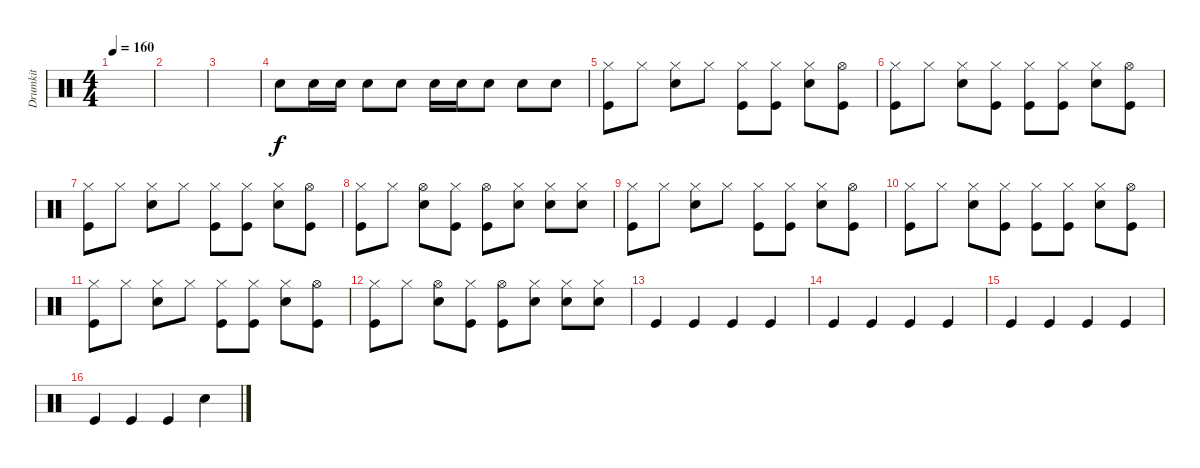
\track ("Drumkit" "Drumkit") {instrument percussion}
\staff {score}
\articulation defaults
\ts (4 4)
\tempo 160
\clef neutral
\ks c
|
|
|
"Snare (hit) 2".8 "Snare (hit) 2".16 "Snare (hit) 2".16 "Snare (hit) 2".8 "Snare (hit) 2".8 "Snare (hit) 2".16 "Snare (hit) 2".16 "Snare (hit) 2".8 "Snare (hit) 2".8 "Snare (hit) 2".8 |
("Kick (hit)" "Hi-Hat (closed)").8 "Hi-Hat (closed)".8 ("Hi-Hat (closed)" "Snare (hit) 2").8 "Hi-Hat (closed)".8 ("Hi-Hat (closed)" "Kick (hit)").8 ("Hi-Hat (closed)" "Kick (hit)").8 ("Hi-Hat (closed)" "Snare (hit) 2").8 ("Hi-Hat (open)" "Kick (hit)").8 |
("Hi-Hat (closed)" "Kick (hit)").8 "Hi-Hat (closed)".8 ("Hi-Hat (closed)" "Snare (hit) 2").8 ("Hi-Hat (closed)" "Kick (hit)").8 ("Hi-Hat (closed)" "Kick (hit)").8 ("Hi-Hat (closed)" "Kick (hit)").8 ("Hi-Hat (closed)" "Snare (hit) 2").8 ("Hi-Hat (open)" "Kick (hit)").8 |
("Hi-Hat (closed)" "Kick (hit)").8 "Hi-Hat (closed)".8 ("Hi-Hat (closed)" "Snare (hit) 2").8 "Hi-Hat (closed)".8 ("Hi-Hat (closed)" "Kick (hit)").8 ("Hi-Hat (closed)" "Kick (hit)").8 ("Hi-Hat (closed)" "Snare (hit) 2").8 ("Hi-Hat (open)" "Kick (hit)").8 |
("Hi-Hat (closed)" "Kick (hit)").8 "Hi-Hat (closed)".8 ("Hi-Hat (open)" "Snare (hit) 2").8 ("Hi-Hat (closed)" "Kick (hit)").8 ("Hi-Hat (open)" "Kick (hit)").8 ("Hi-Hat (closed)" "Snare (hit) 2").8 ("Hi-Hat (closed)" "Snare (hit) 2").8 ("Hi-Hat (closed)" "Snare (hit) 2").8 |
("Hi-Hat (closed)" "Kick (hit)").8 "Hi-Hat (closed)".8 ("Hi-Hat (closed)" "Snare (hit) 2").8 "Hi-Hat (closed)".8 ("Hi-Hat (closed)" "Kick (hit)").8 ("Hi-Hat (closed)" "Kick (hit)").8 ("Hi-Hat (closed)" "Snare (hit) 2").8 ("Hi-Hat (open)" "Kick (hit)").8 |
("Hi-Hat (closed)" "Kick (hit)").8 "Hi-Hat (closed)".8 ("Hi-Hat (closed)" "Snare (hit) 2").8 ("Hi-Hat (closed)" "Kick (hit)").8 ("Hi-Hat (closed)" "Kick (hit)").8 ("Hi-Hat (closed)" "Kick (hit)").8 ("Hi-Hat (closed)" "Snare (hit) 2").8 ("Hi-Hat (open)" "Kick (hit)").8 |
("Hi-Hat (closed)" "Kick (hit)").8 "Hi-Hat (closed)".8 ("Hi-Hat (closed)" "Snare (hit) 2").8 "Hi-Hat (closed)".8 ("Hi-Hat (closed)" "Kick (hit)").8 ("Hi-Hat (closed)" "Kick (hit)").8 ("Hi-Hat (closed)" "Snare (hit) 2").8 ("Hi-Hat (open)" "Kick (hit)").8 |
("Hi-Hat (closed)" "Kick (hit)").8 "Hi-Hat (closed)".8 ("Hi-Hat (open)" "Snare (hit) 2").8 ("Hi-Hat (closed)" "Kick (hit)").8 ("Hi-Hat (open)" "Kick (hit)").8 ("Hi-Hat (closed)" "Snare (hit) 2").8 ("Hi-Hat (closed)" "Snare (hit) 2").8 ("Hi-Hat (closed)" "Snare (hit) 2").8 |
"Kick (hit)".4 "Kick (hit)".4 "Kick (hit)".4 "Kick (hit)".4 |
"Kick (hit)".4 "Kick (hit)".4 "Kick (hit)".4 "Kick (hit)".4 |
"Kick (hit)".4 "Kick (hit)".4 "Kick (hit)".4 "Kick (hit)".4 |
"Kick (hit)".4 "Kick (hit)".4 "Kick (hit)".4 "Snare (hit) 2".4
